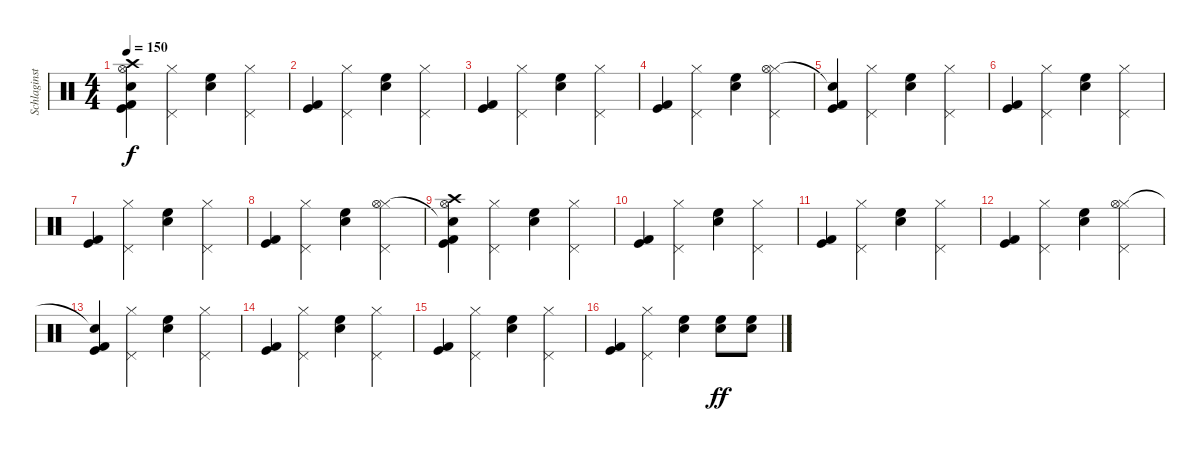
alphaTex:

\track ("Schlaginstrumente - Auswahl" "Schlaginst") {instrument percussion}
\staff {score}
\articulation defaults
\ts (4 4)
\tempo 150
\clef neutral
\ks c
("Kick (hit) 2" "Kick (hit)" "Snare (hit)"{t} "Hi-Hat (open)" "Crash high (hit)").4{dy f} ("Pedal Hi-Hat (hit)" "Hi-Hat (closed)").4 ("High Floor Tom (hit)" "Snare (hit) 2").4 ("Pedal Hi-Hat (hit)" "Hi-Hat (closed)").4 |
("Kick (hit) 2" "Kick (hit)").4 ("Pedal Hi-Hat (hit)" "Hi-Hat (closed)").4 ("High Floor Tom (hit)" "Snare (hit) 2").4 ("Pedal Hi-Hat (hit)" "Hi-Hat (closed)").4 |
("Kick (hit) 2" "Kick (hit)").4 ("Pedal Hi-Hat (hit)" "Hi-Hat (closed)").4 ("High Floor Tom (hit)" "Snare (hit) 2").4 ("Pedal Hi-Hat (hit)" "Hi-Hat (closed)").4 |
("Kick (hit) 2" "Kick (hit)").4 ("Pedal Hi-Hat (hit)" "Hi-Hat (closed)").4 ("High Floor Tom (hit)" "Snare (hit) 2").4 ("Pedal Hi-Hat (hit)" "Hi-Hat (closed)" "Hi-Hat (open)").4 |
("Kick (hit) 2" "Kick (hit)" "Snare (hit)"{t}).4 ("Pedal Hi-Hat (hit)" "Hi-Hat (closed)").4 ("High Floor Tom (hit)" "Snare (hit) 2").4 ("Pedal Hi-Hat (hit)" "Hi-Hat (closed)").4 |
("Kick (hit) 2" "Kick (hit)").4 ("Pedal Hi-Hat (hit)" "Hi-Hat (closed)").4 ("High Floor Tom (hit)" "Snare (hit) 2").4 ("Pedal Hi-Hat (hit)" "Hi-Hat (closed)").4 |
("Kick (hit) 2" "Kick (hit)").4 ("Pedal Hi-Hat (hit)" "Hi-Hat (closed)").4 ("High Floor Tom (hit)" "Snare (hit) 2").4 ("Pedal Hi-Hat (hit)" "Hi-Hat (closed)").4 |
("Kick (hit) 2" "Kick (hit)").4 ("Pedal Hi-Hat (hit)" "Hi-Hat (closed)").4 ("High Floor Tom (hit)" "Snare (hit) 2").4 ("Pedal Hi-Hat (hit)" "Hi-Hat (closed)" "Hi-Hat (open)").4 |
("Kick (hit) 2" "Kick (hit)" "Snare (hit)"{t} "Hi-Hat (open)" "Crash high (hit)").4 ("Pedal Hi-Hat (hit)" "Hi-Hat (closed)").4 ("High Floor Tom (hit)" "Snare (hit) 2").4 ("Pedal Hi-Hat (hit)" "Hi-Hat (closed)").4 |
("Kick (hit) 2" "Kick (hit)").4 ("Pedal Hi-Hat (hit)" "Hi-Hat (closed)").4 ("High Floor Tom (hit)" "Snare (hit) 2").4 ("Pedal Hi-Hat (hit)" "Hi-Hat (closed)").4 |
("Kick (hit) 2" "Kick (hit)").4 ("Pedal Hi-Hat (hit)" "Hi-Hat (closed)").4 ("High Floor Tom (hit)" "Snare (hit) 2").4 ("Pedal Hi-Hat (hit)" "Hi-Hat (closed)").4 |
("Kick (hit) 2" "Kick (hit)").4 ("Pedal Hi-Hat (hit)" "Hi-Hat (closed)").4 ("High Floor Tom (hit)" "Snare (hit) 2").4 ("Pedal Hi-Hat (hit)" "Hi-Hat (closed)" "Hi-Hat (open)").4 |
("Kick (hit) 2" "Kick (hit)" "Snare (hit)"{t}).4 ("Pedal Hi-Hat (hit)" "Hi-Hat (closed)").4 ("High Floor Tom (hit)" "Snare (hit) 2").4 ("Pedal Hi-Hat (hit)" "Hi-Hat (closed)").4 |
("Kick (hit) 2" "Kick (hit)").4 ("Pedal Hi-Hat (hit)" "Hi-Hat (closed)").4 ("High Floor Tom (hit)" "Snare (hit) 2").4 ("Pedal Hi-Hat (hit)" "Hi-Hat (closed)").4 |
("Kick (hit) 2" "Kick (hit)").4 ("Pedal Hi-Hat (hit)" "Hi-Hat (closed)").4 ("High Floor Tom (hit)" "Snare (hit) 2").4 ("Pedal Hi-Hat (hit)" "Hi-Hat (closed)").4 |
("Kick (hit) 2" "Kick (hit)").4 ("Pedal Hi-Hat (hit)" "Hi-Hat (closed)").4 ("High Floor Tom (hit)" "Snare (hit) 2").4 ("Electric Snare (hit)" "High Floor Tom (hit)").8{dy ff} ("Snare (hit) 2" "High Floor Tom (hit)").8
